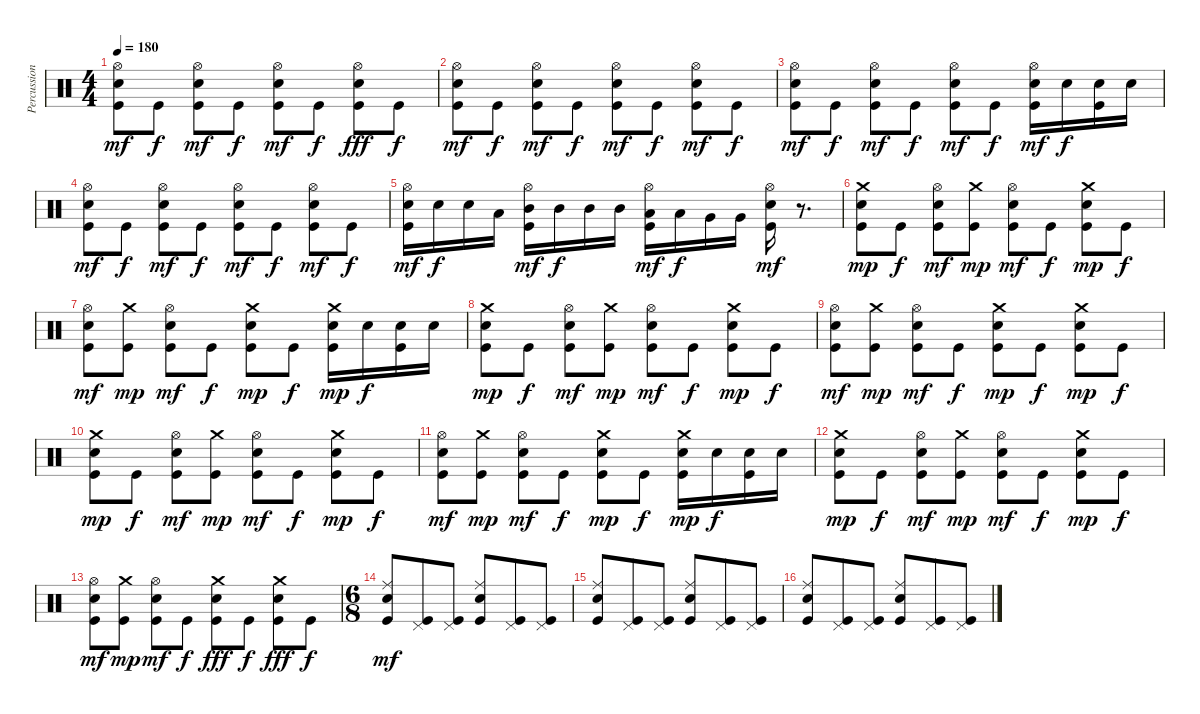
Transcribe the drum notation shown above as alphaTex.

\track ("Percussion" "Percussion") {instrument percussion}
\staff {score}
\articulation defaults
\ts (4 4)
\tempo 180
\clef neutral
\ks c
("Hi-Hat (open)" "Snare (hit) 2" "Kick (hit)").8{dy mf} "Kick (hit)".8{dy f} ("Hi-Hat (open)" "Snare (hit) 2" "Kick (hit)").8{dy mf} "Kick (hit)".8{dy f} ("Hi-Hat (open)" "Snare (hit) 2" "Kick (hit)").8{dy mf} "Kick (hit)".8{dy f} ("Hi-Hat (open)" "Snare (hit) 2" "Kick (hit)").8{dy fff} "Kick (hit)".8{dy f} |
("Hi-Hat (open)" "Snare (hit) 2" "Kick (hit)").8{dy mf} "Kick (hit)".8{dy f} ("Hi-Hat (open)" "Snare (hit) 2" "Kick (hit)").8{dy mf} "Kick (hit)".8{dy f} ("Hi-Hat (open)" "Snare (hit) 2" "Kick (hit)").8{dy mf} "Kick (hit)".8{dy f} ("Hi-Hat (open)" "Snare (hit) 2" "Kick (hit)").8{dy mf} "Kick (hit)".8{dy f} |
("Hi-Hat (open)" "Snare (hit) 2" "Kick (hit)").8{dy mf} "Kick (hit)".8{dy f} ("Hi-Hat (open)" "Snare (hit) 2" "Kick (hit)").8{dy mf} "Kick (hit)".8{dy f} ("Hi-Hat (open)" "Snare (hit) 2" "Kick (hit)").8{dy mf} "Kick (hit)".8{dy f} ("Hi-Hat (open)" "Snare (hit) 2" "Kick (hit)").16{dy mf} "Snare (hit) 2".16{dy f} ("Snare (hit) 2" "Kick (hit)").16 "Snare (hit) 2".16 |
("Hi-Hat (open)" "Snare (hit) 2" "Kick (hit)").8{dy mf} "Kick (hit)".8{dy f} ("Hi-Hat (open)" "Snare (hit) 2" "Kick (hit)").8{dy mf} "Kick (hit)".8{dy f} ("Hi-Hat (open)" "Snare (hit) 2" "Kick (hit)").8{dy mf} "Kick (hit)".8{dy f} ("Hi-Hat (open)" "Snare (hit) 2" "Kick (hit)").8{dy mf} "Kick (hit)".8{dy f} |
("Hi-Hat (open)" "Snare (hit) 2" "Kick (hit)").16{dy mf} "Snare (hit) 2".16{dy f} "Snare (hit) 2".16 "Low Floor Tom (hit)".16 ("Hi-Hat (open)" "Mid Tom (hit)" "Kick (hit)").16{dy mf} "Mid Tom (hit)".16{dy f} "Mid Tom (hit)".16 "Mid Tom (hit)".16 ("Hi-Hat (open)" "Low Tom (hit)" "Kick (hit)").16{dy mf} "Low Tom (hit)".16{dy f} "Very Low Tom (hit)".16 "Very Low Tom (hit)".16 ("Hi-Hat (open)" "Snare (hit) 2" "Kick (hit)").16{dy mf} r.8{d} |
("Crash medium (hit)" "Snare (hit) 2" "Kick (hit)").8{dy mp} "Kick (hit)".8{dy f} ("Hi-Hat (open)" "Snare (hit) 2" "Kick (hit)").8{dy mf} ("Crash medium (hit)" "Kick (hit)").8{dy mp} ("Hi-Hat (open)" "Snare (hit) 2" "Kick (hit)").8{dy mf} "Kick (hit)".8{dy f} ("Crash medium (hit)" "Snare (hit) 2" "Kick (hit)").8{dy mp} "Kick (hit)".8{dy f} |
("Hi-Hat (open)" "Snare (hit) 2" "Kick (hit)").8{dy mf} ("Crash medium (hit)" "Kick (hit)").8{dy mp} ("Hi-Hat (open)" "Snare (hit) 2" "Kick (hit)").8{dy mf} "Kick (hit)".8{dy f} ("Crash medium (hit)" "Snare (hit) 2" "Kick (hit)").8{dy mp} "Kick (hit)".8{dy f} ("Crash medium (hit)" "Snare (hit) 2" "Kick (hit)").16{dy mp} "Snare (hit) 2".16{dy f} ("Snare (hit) 2" "Kick (hit)").16 "Snare (hit) 2".16 |
("Crash medium (hit)" "Snare (hit) 2" "Kick (hit)").8{dy mp} "Kick (hit)".8{dy f} ("Hi-Hat (open)" "Snare (hit) 2" "Kick (hit)").8{dy mf} ("Crash medium (hit)" "Kick (hit)").8{dy mp} ("Hi-Hat (open)" "Snare (hit) 2" "Kick (hit)").8{dy mf} "Kick (hit)".8{dy f} ("Crash medium (hit)" "Snare (hit) 2" "Kick (hit)").8{dy mp} "Kick (hit)".8{dy f} |
("Hi-Hat (open)" "Snare (hit) 2" "Kick (hit)").8{dy mf} ("Crash medium (hit)" "Kick (hit)").8{dy mp} ("Hi-Hat (open)" "Snare (hit) 2" "Kick (hit)").8{dy mf} "Kick (hit)".8{dy f} ("Crash medium (hit)" "Snare (hit) 2" "Kick (hit)").8{dy mp} "Kick (hit)".8{dy f} ("Crash medium (hit)" "Snare (hit) 2" "Kick (hit)").8{dy mp} "Kick (hit)".8{dy f} |
("Crash medium (hit)" "Snare (hit) 2" "Kick (hit)").8{dy mp} "Kick (hit)".8{dy f} ("Hi-Hat (open)" "Snare (hit) 2" "Kick (hit)").8{dy mf} ("Crash medium (hit)" "Kick (hit)").8{dy mp} ("Hi-Hat (open)" "Snare (hit) 2" "Kick (hit)").8{dy mf} "Kick (hit)".8{dy f} ("Crash medium (hit)" "Snare (hit) 2" "Kick (hit)").8{dy mp} "Kick (hit)".8{dy f} |
("Hi-Hat (open)" "Snare (hit) 2" "Kick (hit)").8{dy mf} ("Crash medium (hit)" "Kick (hit)").8{dy mp} ("Hi-Hat (open)" "Snare (hit) 2" "Kick (hit)").8{dy mf} "Kick (hit)".8{dy f} ("Crash medium (hit)" "Snare (hit) 2" "Kick (hit)").8{dy mp} "Kick (hit)".8{dy f} ("Crash medium (hit)" "Snare (hit) 2" "Kick (hit)").16{dy mp} "Snare (hit) 2".16{dy f} ("Snare (hit) 2" "Kick (hit)").16 "Snare (hit) 2".16 |
("Crash medium (hit)" "Snare (hit) 2" "Kick (hit)").8{dy mp} "Kick (hit)".8{dy f} ("Hi-Hat (open)" "Snare (hit) 2" "Kick (hit)").8{dy mf} ("Crash medium (hit)" "Kick (hit)").8{dy mp} ("Hi-Hat (open)" "Snare (hit) 2" "Kick (hit)").8{dy mf} "Kick (hit)".8{dy f} ("Crash medium (hit)" "Snare (hit) 2" "Kick (hit)").8{dy mp} "Kick (hit)".8{dy f} |
("Hi-Hat (open)" "Snare (hit) 2" "Kick (hit)").8{dy mf} ("Crash medium (hit)" "Kick (hit)").8{dy mp} ("Hi-Hat (open)" "Snare (hit) 2" "Kick (hit)").8{dy mf} "Kick (hit)".8{dy f} ("Crash medium (hit)" "Snare (hit) 2" "Kick (hit)").8{dy fff} "Kick (hit)".8{dy f} ("Crash medium (hit)" "Snare (hit) 2" "Kick (hit)").8{dy fff} "Kick (hit)".8{dy f} |
\ts (6 8)
("Ride (middle)" "Snare (hit) 2" "Kick (hit)").8{dy mf} ("Pedal Hi-Hat (hit)" "Kick (hit)").8 ("Pedal Hi-Hat (hit)" "Kick (hit)").8 ("Ride (middle)" "Snare (hit) 2" "Kick (hit)").8 ("Pedal Hi-Hat (hit)" "Kick (hit)").8 ("Pedal Hi-Hat (hit)" "Kick (hit)").8 |
("Ride (middle)" "Snare (hit) 2" "Kick (hit)").8 ("Pedal Hi-Hat (hit)" "Kick (hit)").8 ("Pedal Hi-Hat (hit)" "Kick (hit)").8 ("Ride (middle)" "Snare (hit) 2" "Kick (hit)").8 ("Pedal Hi-Hat (hit)" "Kick (hit)").8 ("Pedal Hi-Hat (hit)" "Kick (hit)").8 |
("Ride (middle)" "Snare (hit) 2" "Kick (hit)").8 ("Pedal Hi-Hat (hit)" "Kick (hit)").8 ("Pedal Hi-Hat (hit)" "Kick (hit)").8 ("Ride (middle)" "Snare (hit) 2" "Kick (hit)").8 ("Pedal Hi-Hat (hit)" "Kick (hit)").8 ("Pedal Hi-Hat (hit)" "Kick (hit)").8
